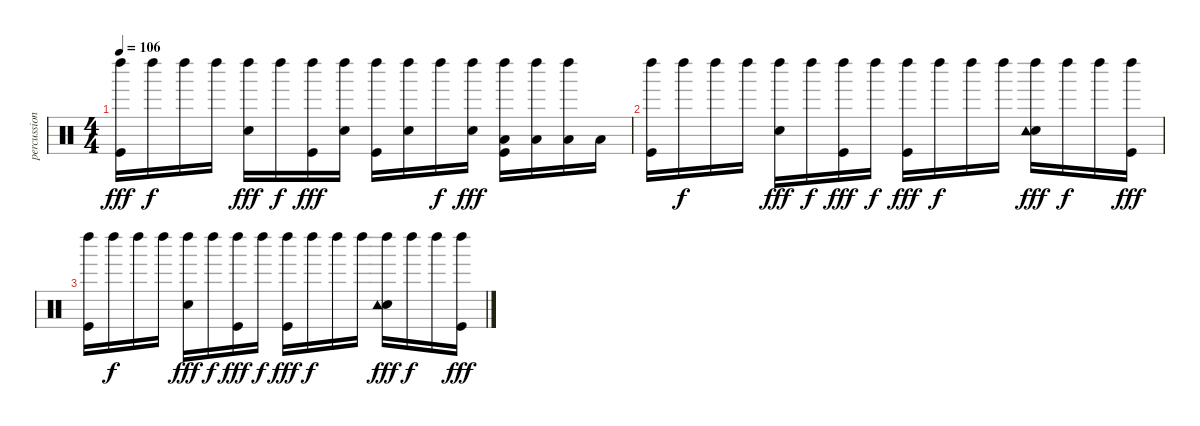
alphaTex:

\track ("percussions" "percussion") {instrument percussion}
\staff {score}
\articulation defaults
\ts (4 4)
\tempo 106
\clef neutral
\ks c
("Left Maraca (hit)" "Kick (hit)").16{dy fff} "Left Maraca (hit)".16{dy f} "Left Maraca (hit)".16 "Left Maraca (hit)".16 ("Left Maraca (hit)" "Snare (hit) 2").16{dy fff} "Left Maraca (hit)".16{dy f} ("Left Maraca (hit)" "Kick (hit)").16{dy fff} ("Left Maraca (hit)" "Snare (hit) 2").16 ("Left Maraca (hit)" "Kick (hit)").16 ("Left Maraca (hit)" "Snare (hit) 2").16 "Left Maraca (hit)".16{dy f} ("Left Maraca (hit)" "Snare (hit) 2").16{dy fff} ("Left Maraca (hit)" "Low Tom (hit)" "Kick (hit)").16 ("Left Maraca (hit)" "Low Tom (hit)").16 ("Left Maraca (hit)" "Low Floor Tom (hit)").16 "Low Floor Tom (hit)".16 |
("Left Maraca (hit)" "Kick (hit)").16 "Left Maraca (hit)".16{dy f} "Left Maraca (hit)".16 "Left Maraca (hit)".16 ("Left Maraca (hit)" "Snare (hit) 2").16{dy fff} "Left Maraca (hit)".16{dy f} ("Left Maraca (hit)" "Kick (hit)").16{dy fff} "Left Maraca (hit)".16{dy f} ("Left Maraca (hit)" "Kick (hit)").16{dy fff} "Left Maraca (hit)".16{dy f} "Left Maraca (hit)".16 "Left Maraca (hit)".16 ("Left Maraca (hit)" "Snare (hit) 2" "Tambourine (hit)").16{dy fff} "Left Maraca (hit)".16{dy f} "Left Maraca (hit)".16 ("Left Maraca (hit)" "Kick (hit)").16{dy fff} |
("Left Maraca (hit)" "Kick (hit)").16 "Left Maraca (hit)".16{dy f} "Left Maraca (hit)".16 "Left Maraca (hit)".16 ("Left Maraca (hit)" "Snare (hit) 2").16{dy fff} "Left Maraca (hit)".16{dy f} ("Left Maraca (hit)" "Kick (hit)").16{dy fff} "Left Maraca (hit)".16{dy f} ("Left Maraca (hit)" "Kick (hit)").16{dy fff} "Left Maraca (hit)".16{dy f} "Left Maraca (hit)".16 "Left Maraca (hit)".16 ("Left Maraca (hit)" "Snare (hit) 2" "Tambourine (hit)").16{dy fff} "Left Maraca (hit)".16{dy f} "Left Maraca (hit)".16 ("Left Maraca (hit)" "Kick (hit)").16{dy fff}
